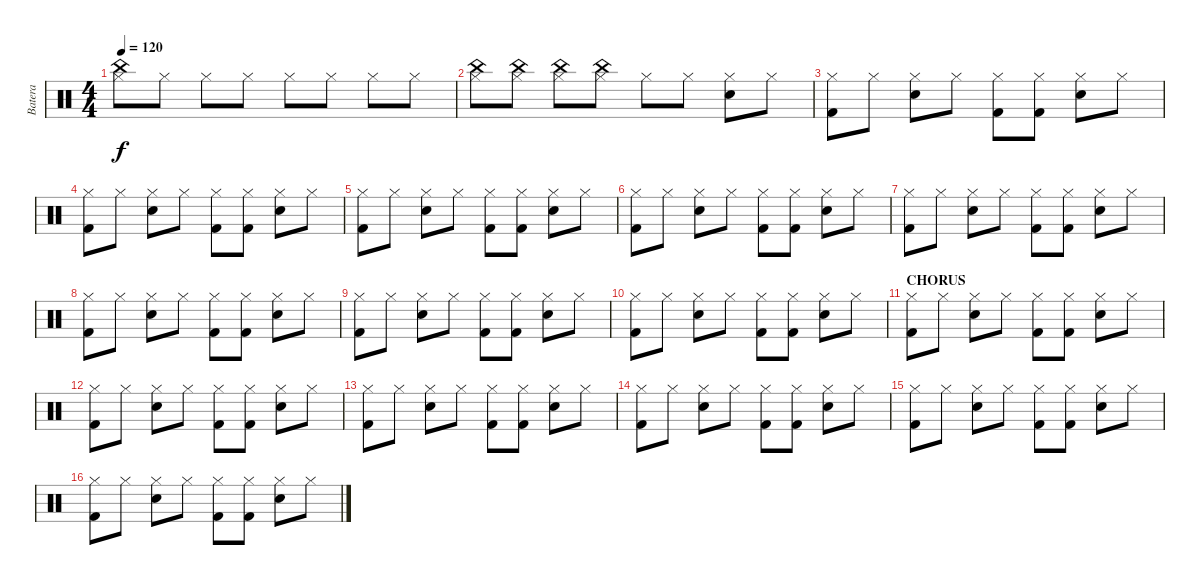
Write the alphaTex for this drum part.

\track ("Batera" "Batera") {instrument percussion}
\staff {score}
\articulation defaults
\ts (4 4)
\tempo 120
\clef neutral
\ks c
("Hi-Hat (closed)" "China (hit)").8{dy f} "Hi-Hat (closed)".8 "Hi-Hat (closed)".8 "Hi-Hat (closed)".8 "Hi-Hat (closed)".8 "Hi-Hat (closed)".8 "Hi-Hat (closed)".8 "Hi-Hat (closed)".8 |
("Hi-Hat (closed)" "China (hit)").8 ("Hi-Hat (closed)" "China (hit)").8 ("Hi-Hat (closed)" "China (hit)").8 ("Hi-Hat (closed)" "China (hit)").8 "Hi-Hat (closed)".8 "Hi-Hat (closed)".8 ("Hi-Hat (closed)" "Snare (hit) 2").8 "Hi-Hat (closed)".8 |
("Hi-Hat (closed)" "Kick (hit) 2").8 "Hi-Hat (closed)".8 ("Hi-Hat (closed)" "Snare (hit) 2").8 "Hi-Hat (closed)".8 ("Hi-Hat (closed)" "Kick (hit) 2").8 ("Hi-Hat (closed)" "Kick (hit) 2").8 ("Hi-Hat (closed)" "Snare (hit) 2").8 "Hi-Hat (closed)".8 |
("Hi-Hat (closed)" "Kick (hit) 2").8 "Hi-Hat (closed)".8 ("Hi-Hat (closed)" "Snare (hit) 2").8 "Hi-Hat (closed)".8 ("Hi-Hat (closed)" "Kick (hit) 2").8 ("Hi-Hat (closed)" "Kick (hit) 2").8 ("Hi-Hat (closed)" "Snare (hit) 2").8 "Hi-Hat (closed)".8 |
("Hi-Hat (closed)" "Kick (hit) 2").8 "Hi-Hat (closed)".8 ("Hi-Hat (closed)" "Snare (hit) 2").8 "Hi-Hat (closed)".8 ("Hi-Hat (closed)" "Kick (hit) 2").8 ("Hi-Hat (closed)" "Kick (hit) 2").8 ("Hi-Hat (closed)" "Snare (hit) 2").8 "Hi-Hat (closed)".8 |
("Hi-Hat (closed)" "Kick (hit) 2").8 "Hi-Hat (closed)".8 ("Hi-Hat (closed)" "Snare (hit) 2").8 "Hi-Hat (closed)".8 ("Hi-Hat (closed)" "Kick (hit) 2").8 ("Hi-Hat (closed)" "Kick (hit) 2").8 ("Hi-Hat (closed)" "Snare (hit) 2").8 "Hi-Hat (closed)".8 |
("Hi-Hat (closed)" "Kick (hit) 2").8 "Hi-Hat (closed)".8 ("Hi-Hat (closed)" "Snare (hit) 2").8 "Hi-Hat (closed)".8 ("Hi-Hat (closed)" "Kick (hit) 2").8 ("Hi-Hat (closed)" "Kick (hit) 2").8 ("Hi-Hat (closed)" "Snare (hit) 2").8 "Hi-Hat (closed)".8 |
("Hi-Hat (closed)" "Kick (hit) 2").8 "Hi-Hat (closed)".8 ("Hi-Hat (closed)" "Snare (hit) 2").8 "Hi-Hat (closed)".8 ("Hi-Hat (closed)" "Kick (hit) 2").8 ("Hi-Hat (closed)" "Kick (hit) 2").8 ("Hi-Hat (closed)" "Snare (hit) 2").8 "Hi-Hat (closed)".8 |
("Hi-Hat (closed)" "Kick (hit) 2").8 "Hi-Hat (closed)".8 ("Hi-Hat (closed)" "Snare (hit) 2").8 "Hi-Hat (closed)".8 ("Hi-Hat (closed)" "Kick (hit) 2").8 ("Hi-Hat (closed)" "Kick (hit) 2").8 ("Hi-Hat (closed)" "Snare (hit) 2").8 "Hi-Hat (closed)".8 |
("Hi-Hat (closed)" "Kick (hit) 2").8 "Hi-Hat (closed)".8 ("Hi-Hat (closed)" "Snare (hit) 2").8 "Hi-Hat (closed)".8 ("Hi-Hat (closed)" "Kick (hit) 2").8 ("Hi-Hat (closed)" "Kick (hit) 2").8 ("Hi-Hat (closed)" "Snare (hit) 2").8 "Hi-Hat (closed)".8 |
\section ("" "CHORUS")
("Hi-Hat (closed)" "Kick (hit) 2").8 "Hi-Hat (closed)".8 ("Hi-Hat (closed)" "Snare (hit) 2").8 "Hi-Hat (closed)".8 ("Hi-Hat (closed)" "Kick (hit) 2").8 ("Hi-Hat (closed)" "Kick (hit) 2").8 ("Hi-Hat (closed)" "Snare (hit) 2").8 "Hi-Hat (closed)".8 |
("Hi-Hat (closed)" "Kick (hit) 2").8 "Hi-Hat (closed)".8 ("Hi-Hat (closed)" "Snare (hit) 2").8 "Hi-Hat (closed)".8 ("Hi-Hat (closed)" "Kick (hit) 2").8 ("Hi-Hat (closed)" "Kick (hit) 2").8 ("Hi-Hat (closed)" "Snare (hit) 2").8 "Hi-Hat (closed)".8 |
("Hi-Hat (closed)" "Kick (hit) 2").8 "Hi-Hat (closed)".8 ("Hi-Hat (closed)" "Snare (hit) 2").8 "Hi-Hat (closed)".8 ("Hi-Hat (closed)" "Kick (hit) 2").8 ("Hi-Hat (closed)" "Kick (hit) 2").8 ("Hi-Hat (closed)" "Snare (hit) 2").8 "Hi-Hat (closed)".8 |
("Hi-Hat (closed)" "Kick (hit) 2").8 "Hi-Hat (closed)".8 ("Hi-Hat (closed)" "Snare (hit) 2").8 "Hi-Hat (closed)".8 ("Hi-Hat (closed)" "Kick (hit) 2").8 ("Hi-Hat (closed)" "Kick (hit) 2").8 ("Hi-Hat (closed)" "Snare (hit) 2").8 "Hi-Hat (closed)".8 |
("Hi-Hat (closed)" "Kick (hit) 2").8 "Hi-Hat (closed)".8 ("Hi-Hat (closed)" "Snare (hit) 2").8 "Hi-Hat (closed)".8 ("Hi-Hat (closed)" "Kick (hit) 2").8 ("Hi-Hat (closed)" "Kick (hit) 2").8 ("Hi-Hat (closed)" "Snare (hit) 2").8 "Hi-Hat (closed)".8 |
("Hi-Hat (closed)" "Kick (hit) 2").8 "Hi-Hat (closed)".8 ("Hi-Hat (closed)" "Snare (hit) 2").8 "Hi-Hat (closed)".8 ("Hi-Hat (closed)" "Kick (hit) 2").8 ("Hi-Hat (closed)" "Kick (hit) 2").8 ("Hi-Hat (closed)" "Snare (hit) 2").8 "Hi-Hat (closed)".8
